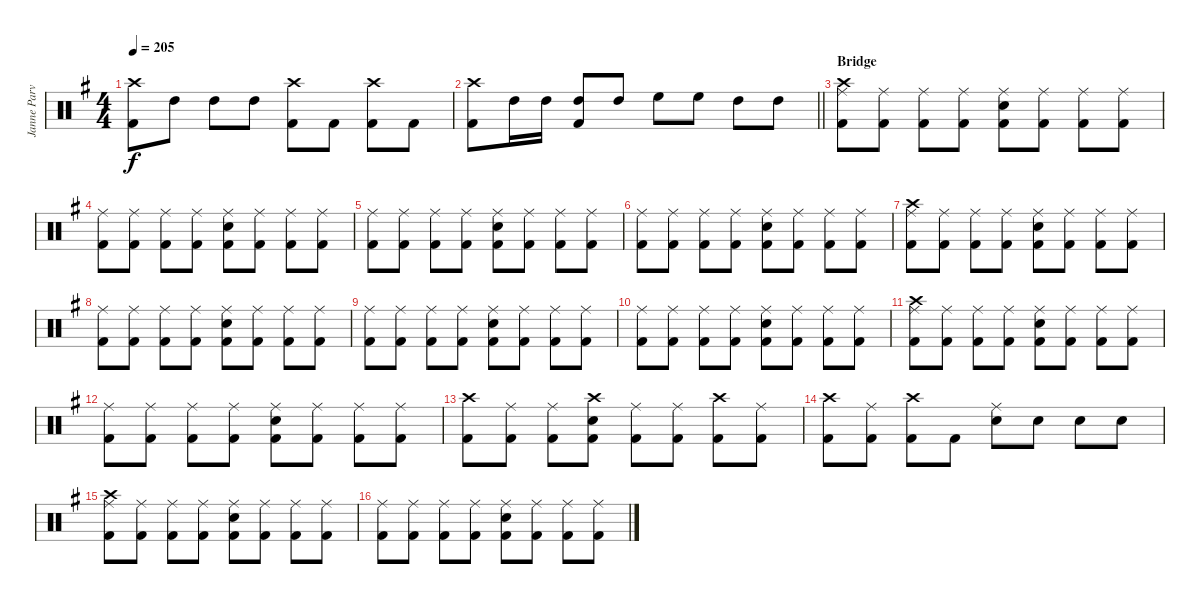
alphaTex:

\track ("Janne Parviainen" "Janne Parv") {instrument percussion}
\staff {score}
\articulation defaults
\ts (4 4)
\tempo 205
\clef neutral
\ks eminor
("Crash high (hit)" "Kick (hit) 2").8{dy f} "High Tom (hit)".8 "High Tom (hit)".8 "High Tom (hit)".8 ("Crash high (hit)" "Kick (hit) 2").8 "Kick (hit) 2".8 ("Crash high (hit)" "Kick (hit) 2").8 "Kick (hit) 2".8 |
\barLineRight lightlight
("Crash high (hit)" "Kick (hit) 2").8 "High Tom (hit)".16 "High Tom (hit)".16 ("High Tom (hit)" "Kick (hit) 2").8 "High Tom (hit)".8 "High Floor Tom (hit)".8 "High Floor Tom (hit)".8 "High Tom (hit)".8 "High Tom (hit)".8 |
\section ("" "Bridge")
("Crash high (hit)" "Ride (middle)" "Kick (hit) 2").8 ("Ride (middle)" "Kick (hit) 2").8 ("Ride (middle)" "Kick (hit) 2").8 ("Ride (middle)" "Kick (hit) 2").8 ("Ride (middle)" "Snare (hit) 2" "Kick (hit) 2").8 ("Ride (middle)" "Kick (hit) 2").8 ("Ride (middle)" "Kick (hit) 2").8 ("Ride (middle)" "Kick (hit) 2").8 |
("Ride (middle)" "Kick (hit) 2").8 ("Ride (middle)" "Kick (hit) 2").8 ("Ride (middle)" "Kick (hit) 2").8 ("Ride (middle)" "Kick (hit) 2").8 ("Ride (middle)" "Snare (hit) 2" "Kick (hit) 2").8 ("Ride (middle)" "Kick (hit) 2").8 ("Ride (middle)" "Kick (hit) 2").8 ("Ride (middle)" "Kick (hit) 2").8 |
("Ride (middle)" "Kick (hit) 2").8 ("Ride (middle)" "Kick (hit) 2").8 ("Ride (middle)" "Kick (hit) 2").8 ("Ride (middle)" "Kick (hit) 2").8 ("Ride (middle)" "Snare (hit) 2" "Kick (hit) 2").8 ("Ride (middle)" "Kick (hit) 2").8 ("Ride (middle)" "Kick (hit) 2").8 ("Ride (middle)" "Kick (hit) 2").8 |
("Ride (middle)" "Kick (hit) 2").8 ("Ride (middle)" "Kick (hit) 2").8 ("Ride (middle)" "Kick (hit) 2").8 ("Ride (middle)" "Kick (hit) 2").8 ("Ride (middle)" "Snare (hit) 2" "Kick (hit) 2").8 ("Ride (middle)" "Kick (hit) 2").8 ("Ride (middle)" "Kick (hit) 2").8 ("Ride (middle)" "Kick (hit) 2").8 |
("Ride (middle)" "Crash high (hit)" "Kick (hit) 2").8 ("Ride (middle)" "Kick (hit) 2").8 ("Ride (middle)" "Kick (hit) 2").8 ("Ride (middle)" "Kick (hit) 2").8 ("Ride (middle)" "Snare (hit) 2" "Kick (hit) 2").8 ("Ride (middle)" "Kick (hit) 2").8 ("Ride (middle)" "Kick (hit) 2").8 ("Ride (middle)" "Kick (hit) 2").8 |
("Ride (middle)" "Kick (hit) 2").8 ("Ride (middle)" "Kick (hit) 2").8 ("Ride (middle)" "Kick (hit) 2").8 ("Ride (middle)" "Kick (hit) 2").8 ("Ride (middle)" "Snare (hit) 2" "Kick (hit) 2").8 ("Ride (middle)" "Kick (hit) 2").8 ("Ride (middle)" "Kick (hit) 2").8 ("Ride (middle)" "Kick (hit) 2").8 |
("Ride (middle)" "Kick (hit) 2").8 ("Ride (middle)" "Kick (hit) 2").8 ("Ride (middle)" "Kick (hit) 2").8 ("Ride (middle)" "Kick (hit) 2").8 ("Ride (middle)" "Snare (hit) 2" "Kick (hit) 2").8 ("Ride (middle)" "Kick (hit) 2").8 ("Ride (middle)" "Kick (hit) 2").8 ("Ride (middle)" "Kick (hit) 2").8 |
("Ride (middle)" "Kick (hit) 2").8 ("Ride (middle)" "Kick (hit) 2").8 ("Ride (middle)" "Kick (hit) 2").8 ("Ride (middle)" "Kick (hit) 2").8 ("Ride (middle)" "Snare (hit) 2" "Kick (hit) 2").8 ("Ride (middle)" "Kick (hit) 2").8 ("Ride (middle)" "Kick (hit) 2").8 ("Ride (middle)" "Kick (hit) 2").8 |
("Crash high (hit)" "Ride (middle)" "Kick (hit) 2").8 ("Ride (middle)" "Kick (hit) 2").8 ("Ride (middle)" "Kick (hit) 2").8 ("Ride (middle)" "Kick (hit) 2").8 ("Ride (middle)" "Snare (hit) 2" "Kick (hit) 2").8 ("Ride (middle)" "Kick (hit) 2").8 ("Ride (middle)" "Kick (hit) 2").8 ("Ride (middle)" "Kick (hit) 2").8 |
("Ride (middle)" "Kick (hit) 2").8 ("Ride (middle)" "Kick (hit) 2").8 ("Ride (middle)" "Kick (hit) 2").8 ("Ride (middle)" "Kick (hit) 2").8 ("Ride (middle)" "Snare (hit) 2" "Kick (hit) 2").8 ("Ride (middle)" "Kick (hit) 2").8 ("Ride (middle)" "Kick (hit) 2").8 ("Ride (middle)" "Kick (hit) 2").8 |
("Crash high (hit)" "Kick (hit) 2").8 ("Ride (middle)" "Kick (hit) 2").8 ("Ride (middle)" "Kick (hit) 2").8 ("Crash high (hit)" "Snare (hit) 2" "Kick (hit) 2").8 ("Ride (middle)" "Kick (hit) 2").8 ("Ride (middle)" "Kick (hit) 2").8 ("Crash high (hit)" "Kick (hit) 2").8 ("Ride (middle)" "Kick (hit) 2").8 |
("Crash high (hit)" "Kick (hit) 2").8 ("Ride (middle)" "Kick (hit) 2").8 ("Crash high (hit)" "Kick (hit) 2").8 "Kick (hit) 2".8 ("Ride (middle)" "Electric Snare (hit)").8 "Electric Snare (hit)".8 "Electric Snare (hit)".8 "Electric Snare (hit)".8 |
("Crash high (hit)" "Ride (middle)" "Kick (hit) 2").8 ("Ride (middle)" "Kick (hit) 2").8 ("Ride (middle)" "Kick (hit) 2").8 ("Ride (middle)" "Kick (hit) 2").8 ("Ride (middle)" "Snare (hit) 2" "Kick (hit) 2").8 ("Ride (middle)" "Kick (hit) 2").8 ("Ride (middle)" "Kick (hit) 2").8 ("Ride (middle)" "Kick (hit) 2").8 |
("Ride (middle)" "Kick (hit) 2").8 ("Ride (middle)" "Kick (hit) 2").8 ("Ride (middle)" "Kick (hit) 2").8 ("Ride (middle)" "Kick (hit) 2").8 ("Ride (middle)" "Snare (hit) 2" "Kick (hit) 2").8 ("Ride (middle)" "Kick (hit) 2").8 ("Ride (middle)" "Kick (hit) 2").8 ("Ride (middle)" "Kick (hit) 2").8
